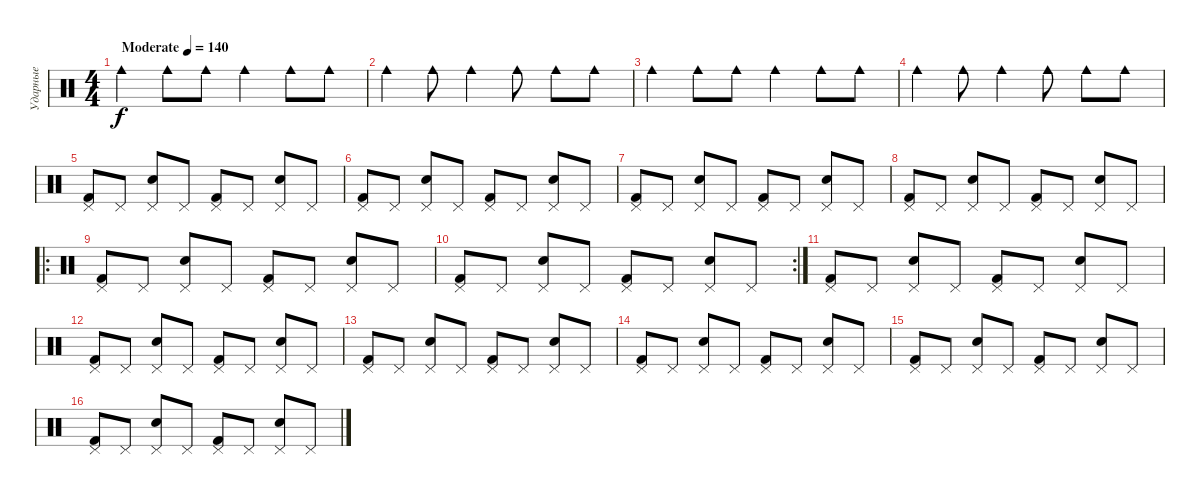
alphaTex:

\track ("Ударные" "Ударные") {instrument percussion}
\staff {score}
\articulation defaults
\ts (4 4)
\tempo (140 "Moderate")
\clef neutral
\ks c "Cowbell medium (hit)".4{dy f} "Cowbell medium (hit)".8 "Cowbell medium (hit)".8 "Cowbell medium (hit)".4 "Cowbell medium (hit)".8 "Cowbell medium (hit)".8
|
"Cowbell medium (hit)".4 "Cowbell medium (hit)".8 "Cowbell medium (hit)".4 "Cowbell medium (hit)".8 "Cowbell medium (hit)".8 "Cowbell medium (hit)".8 |
"Cowbell medium (hit)".4 "Cowbell medium (hit)".8 "Cowbell medium (hit)".8 "Cowbell medium (hit)".4 "Cowbell medium (hit)".8 "Cowbell medium (hit)".8 |
"Cowbell medium (hit)".4 "Cowbell medium (hit)".8 "Cowbell medium (hit)".4 "Cowbell medium (hit)".8 "Cowbell medium (hit)".8 "Cowbell medium (hit)".8 |
("Kick (hit) 2" "Pedal Hi-Hat (hit)").8 "Pedal Hi-Hat (hit)".8 ("Snare (hit) 2" "Pedal Hi-Hat (hit)").8 "Pedal Hi-Hat (hit)".8 ("Kick (hit) 2" "Pedal Hi-Hat (hit)").8 "Pedal Hi-Hat (hit)".8 ("Snare (hit) 2" "Pedal Hi-Hat (hit)").8 "Pedal Hi-Hat (hit)".8 |
("Kick (hit) 2" "Pedal Hi-Hat (hit)").8 "Pedal Hi-Hat (hit)".8 ("Snare (hit) 2" "Pedal Hi-Hat (hit)").8 "Pedal Hi-Hat (hit)".8 ("Kick (hit) 2" "Pedal Hi-Hat (hit)").8 "Pedal Hi-Hat (hit)".8 ("Snare (hit) 2" "Pedal Hi-Hat (hit)").8 "Pedal Hi-Hat (hit)".8 |
("Kick (hit) 2" "Pedal Hi-Hat (hit)").8 "Pedal Hi-Hat (hit)".8 ("Snare (hit) 2" "Pedal Hi-Hat (hit)").8 "Pedal Hi-Hat (hit)".8 ("Kick (hit) 2" "Pedal Hi-Hat (hit)").8 "Pedal Hi-Hat (hit)".8 ("Snare (hit) 2" "Pedal Hi-Hat (hit)").8 "Pedal Hi-Hat (hit)".8 |
("Kick (hit) 2" "Pedal Hi-Hat (hit)").8 "Pedal Hi-Hat (hit)".8 ("Snare (hit) 2" "Pedal Hi-Hat (hit)").8 "Pedal Hi-Hat (hit)".8 ("Kick (hit) 2" "Pedal Hi-Hat (hit)").8 "Pedal Hi-Hat (hit)".8 ("Snare (hit) 2" "Pedal Hi-Hat (hit)").8 "Pedal Hi-Hat (hit)".8 |
\ro
("Kick (hit) 2" "Pedal Hi-Hat (hit)").8 "Pedal Hi-Hat (hit)".8 ("Snare (hit) 2" "Pedal Hi-Hat (hit)").8 "Pedal Hi-Hat (hit)".8 ("Kick (hit) 2" "Pedal Hi-Hat (hit)").8 "Pedal Hi-Hat (hit)".8 ("Snare (hit) 2" "Pedal Hi-Hat (hit)").8 "Pedal Hi-Hat (hit)".8 |
\rc 2
("Kick (hit) 2" "Pedal Hi-Hat (hit)").8 "Pedal Hi-Hat (hit)".8 ("Snare (hit) 2" "Pedal Hi-Hat (hit)").8 "Pedal Hi-Hat (hit)".8 ("Kick (hit) 2" "Pedal Hi-Hat (hit)").8 "Pedal Hi-Hat (hit)".8 ("Snare (hit) 2" "Pedal Hi-Hat (hit)").8 "Pedal Hi-Hat (hit)".8 |
("Kick (hit) 2" "Pedal Hi-Hat (hit)").8 "Pedal Hi-Hat (hit)".8 ("Snare (hit) 2" "Pedal Hi-Hat (hit)").8 "Pedal Hi-Hat (hit)".8 ("Kick (hit) 2" "Pedal Hi-Hat (hit)").8 "Pedal Hi-Hat (hit)".8 ("Snare (hit) 2" "Pedal Hi-Hat (hit)").8 "Pedal Hi-Hat (hit)".8 |
("Kick (hit) 2" "Pedal Hi-Hat (hit)").8 "Pedal Hi-Hat (hit)".8 ("Snare (hit) 2" "Pedal Hi-Hat (hit)").8 "Pedal Hi-Hat (hit)".8 ("Kick (hit) 2" "Pedal Hi-Hat (hit)").8 "Pedal Hi-Hat (hit)".8 ("Snare (hit) 2" "Pedal Hi-Hat (hit)").8 "Pedal Hi-Hat (hit)".8 |
("Kick (hit) 2" "Pedal Hi-Hat (hit)").8 "Pedal Hi-Hat (hit)".8 ("Snare (hit) 2" "Pedal Hi-Hat (hit)").8 "Pedal Hi-Hat (hit)".8 ("Kick (hit) 2" "Pedal Hi-Hat (hit)").8 "Pedal Hi-Hat (hit)".8 ("Snare (hit) 2" "Pedal Hi-Hat (hit)").8 "Pedal Hi-Hat (hit)".8 |
("Kick (hit) 2" "Pedal Hi-Hat (hit)").8 "Pedal Hi-Hat (hit)".8 ("Snare (hit) 2" "Pedal Hi-Hat (hit)").8 "Pedal Hi-Hat (hit)".8 ("Kick (hit) 2" "Pedal Hi-Hat (hit)").8 "Pedal Hi-Hat (hit)".8 ("Snare (hit) 2" "Pedal Hi-Hat (hit)").8 "Pedal Hi-Hat (hit)".8 |
("Kick (hit) 2" "Pedal Hi-Hat (hit)").8 "Pedal Hi-Hat (hit)".8 ("Snare (hit) 2" "Pedal Hi-Hat (hit)").8 "Pedal Hi-Hat (hit)".8 ("Kick (hit) 2" "Pedal Hi-Hat (hit)").8 "Pedal Hi-Hat (hit)".8 ("Snare (hit) 2" "Pedal Hi-Hat (hit)").8 "Pedal Hi-Hat (hit)".8 |
("Kick (hit) 2" "Pedal Hi-Hat (hit)").8 "Pedal Hi-Hat (hit)".8 ("Snare (hit) 2" "Pedal Hi-Hat (hit)").8 "Pedal Hi-Hat (hit)".8 ("Kick (hit) 2" "Pedal Hi-Hat (hit)").8 "Pedal Hi-Hat (hit)".8 ("Snare (hit) 2" "Pedal Hi-Hat (hit)").8 "Pedal Hi-Hat (hit)".8
